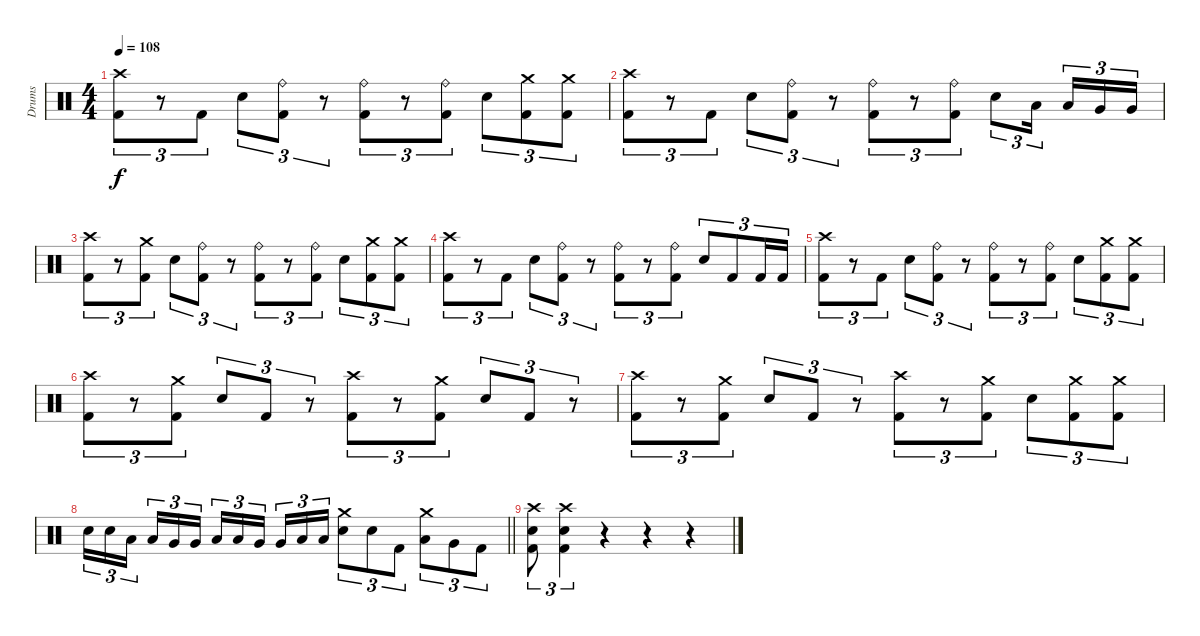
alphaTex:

\track ("Drums" "Drums") {instrument percussion}
\staff {score}
\articulation defaults
\ts (4 4)
\tempo 108
\clef neutral
\ks c
("Crash high (hit)" "Kick (hit) 2").8{tu (3 2) dy f} r.8{tu (3 2)} "Kick (hit) 2".8{tu (3 2)} "Electric Snare (hit)".8{tu (3 2)} ("Ride (bell)" "Kick (hit) 2").8{tu (3 2)} r.8{tu (3 2)} ("Ride (bell)" "Kick (hit) 2").8{tu (3 2)} r.8{tu (3 2)} ("Ride (bell)" "Kick (hit) 2").8{tu (3 2)} "Electric Snare (hit)".8{tu (3 2)} ("Crash medium (hit)" "Kick (hit) 2").8{tu (3 2)} ("Crash medium (hit)" "Kick (hit) 2").8{tu (3 2)} |
("Crash high (hit)" "Kick (hit) 2").8{tu (3 2)} r.8{tu (3 2)} "Kick (hit) 2".8{tu (3 2)} "Electric Snare (hit)".8{tu (3 2)} ("Ride (bell)" "Kick (hit) 2").8{tu (3 2)} r.8{tu (3 2)} ("Ride (bell)" "Kick (hit) 2").8{tu (3 2)} r.8{tu (3 2)} ("Ride (bell)" "Kick (hit) 2").8{tu (3 2)} "Electric Snare (hit)".8{tu (3 2)} "Low Tom (hit)".16{tu (3 2) beam splitsecondary} "Low Tom (hit)".16{tu (3 2)} "Very Low Tom (hit)".16{tu (3 2)} "Very Low Tom (hit)".16{tu (3 2)} |
("Crash high (hit)" "Kick (hit) 2").8{tu (3 2)} r.8{tu (3 2)} ("Crash medium (hit)" "Kick (hit) 2").8{tu (3 2)} "Electric Snare (hit)".8{tu (3 2)} ("Ride (bell)" "Kick (hit) 2").8{tu (3 2)} r.8{tu (3 2)} ("Ride (bell)" "Kick (hit) 2").8{tu (3 2)} r.8{tu (3 2)} ("Ride (bell)" "Kick (hit) 2").8{tu (3 2)} "Electric Snare (hit)".8{tu (3 2)} ("Crash medium (hit)" "Kick (hit) 2").8{tu (3 2)} ("Crash medium (hit)" "Kick (hit) 2").8{tu (3 2)} |
("Crash high (hit)" "Kick (hit) 2").8{tu (3 2)} r.8{tu (3 2)} "Kick (hit) 2".8{tu (3 2)} "Electric Snare (hit)".8{tu (3 2)} ("Ride (bell)" "Kick (hit) 2").8{tu (3 2)} r.8{tu (3 2)} ("Ride (bell)" "Kick (hit) 2").8{tu (3 2)} r.8{tu (3 2)} ("Ride (bell)" "Kick (hit) 2").8{tu (3 2)} "Electric Snare (hit)".8{tu (3 2)} "Kick (hit) 2".8{tu (3 2)} "Kick (hit) 2".16{tu (3 2)} "Kick (hit) 2".16{tu (3 2)} |
("Crash high (hit)" "Kick (hit) 2").8{tu (3 2)} r.8{tu (3 2)} "Kick (hit) 2".8{tu (3 2)} "Electric Snare (hit)".8{tu (3 2)} ("Ride (bell)" "Kick (hit) 2").8{tu (3 2)} r.8{tu (3 2)} ("Ride (bell)" "Kick (hit) 2").8{tu (3 2)} r.8{tu (3 2)} ("Ride (bell)" "Kick (hit) 2").8{tu (3 2)} "Electric Snare (hit)".8{tu (3 2)} ("Crash medium (hit)" "Kick (hit) 2").8{tu (3 2)} ("Crash medium (hit)" "Kick (hit) 2").8{tu (3 2)} |
("Crash high (hit)" "Kick (hit) 2").8{tu (3 2)} r.8{tu (3 2)} ("Crash medium (hit)" "Kick (hit) 2").8{tu (3 2)} "Electric Snare (hit)".8{tu (3 2)} "Kick (hit) 2".8{tu (3 2)} r.8{tu (3 2)} ("Crash high (hit)" "Kick (hit) 2").8{tu (3 2)} r.8{tu (3 2)} ("Crash medium (hit)" "Kick (hit) 2").8{tu (3 2)} "Electric Snare (hit)".8{tu (3 2)} "Kick (hit) 2".8{tu (3 2)} r.8{tu (3 2)} |
("Crash high (hit)" "Kick (hit) 2").8{tu (3 2)} r.8{tu (3 2)} ("Crash medium (hit)" "Kick (hit) 2").8{tu (3 2)} "Electric Snare (hit)".8{tu (3 2)} "Kick (hit) 2".8{tu (3 2)} r.8{tu (3 2)} ("Crash high (hit)" "Kick (hit) 2").8{tu (3 2)} r.8{tu (3 2)} ("Crash medium (hit)" "Kick (hit) 2").8{tu (3 2)} "Electric Snare (hit)".8{tu (3 2)} ("Crash medium (hit)" "Kick (hit) 2").8{tu (3 2)} ("Crash medium (hit)" "Kick (hit) 2").8{tu (3 2)} |
\barLineRight lightlight "Electric Snare (hit)".16{tu (3 2)} "Electric Snare (hit)".16{tu (3 2)} "Low Tom (hit)".16{tu (3 2) beam splitsecondary} "Low Tom (hit)".16{tu (3 2)} "Very Low Tom (hit)".16{tu (3 2)} "Very Low Tom (hit)".16{tu (3 2)} "Low Tom (hit)".16{tu (3 2)} "Low Tom (hit)".16{tu (3 2)} "Very Low Tom (hit)".16{tu (3 2) beam splitsecondary} "Very Low Tom (hit)".16{tu (3 2)} "Low Floor Tom (hit)".16{tu (3 2)} "Low Floor Tom (hit)".16{tu (3 2)}
("Crash medium (hit)" "Electric Snare (hit)").8{tu (3 2)} "Electric Snare (hit)".8{tu (3 2)} "Kick (hit) 2".8{tu (3 2)} ("Crash medium (hit)" "Low Tom (hit)").8{tu (3 2)} "Very Low Tom (hit)".8{tu (3 2)} "Kick (hit) 2".8{tu (3 2)} |
("Crash high (hit)" "Electric Snare (hit)" "Kick (hit) 2").8{tu (3 2)} ("Crash high (hit)" "Electric Snare (hit)" "Kick (hit) 2").4{tu (3 2)} r.4 r.4 r.4
